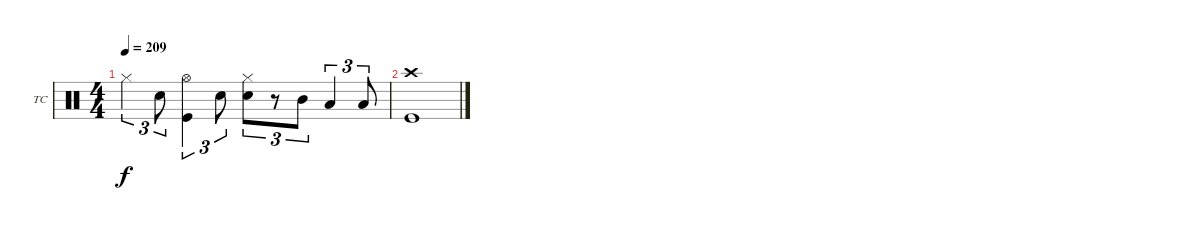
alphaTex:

\defaultSystemsLayout 4
\bracketExtendMode groupsimilarinstruments
\firstSystemTrackNameOrientation horizontal
\otherSystemsTrackNameOrientation horizontal
\track ("Drums - Tre Cool" "TC") {instrument percussion}
\staff {score}
\articulation defaults
\ts (4 4)
\tempo 209
\clef neutral
\ks c "Hi-Hat (closed)".4{tu (3 2) dy f} "Snare (hit) 2".8{tu (3 2)}
("Hi-Hat (open)" "Kick (hit)").4{tu (3 2)} "Snare (hit) 2".8{tu (3 2)} ("Hi-Hat (closed)" "Snare (hit) 2").8{tu (3 2)} r.8{tu (3 2)} "Mid Tom (hit)".8{tu (3 2)} "Low Tom (hit)".4{tu (3 2)} "Low Tom (hit)".8{tu (3 2)} |
("Crash high (hit)" "Kick (hit)").1
